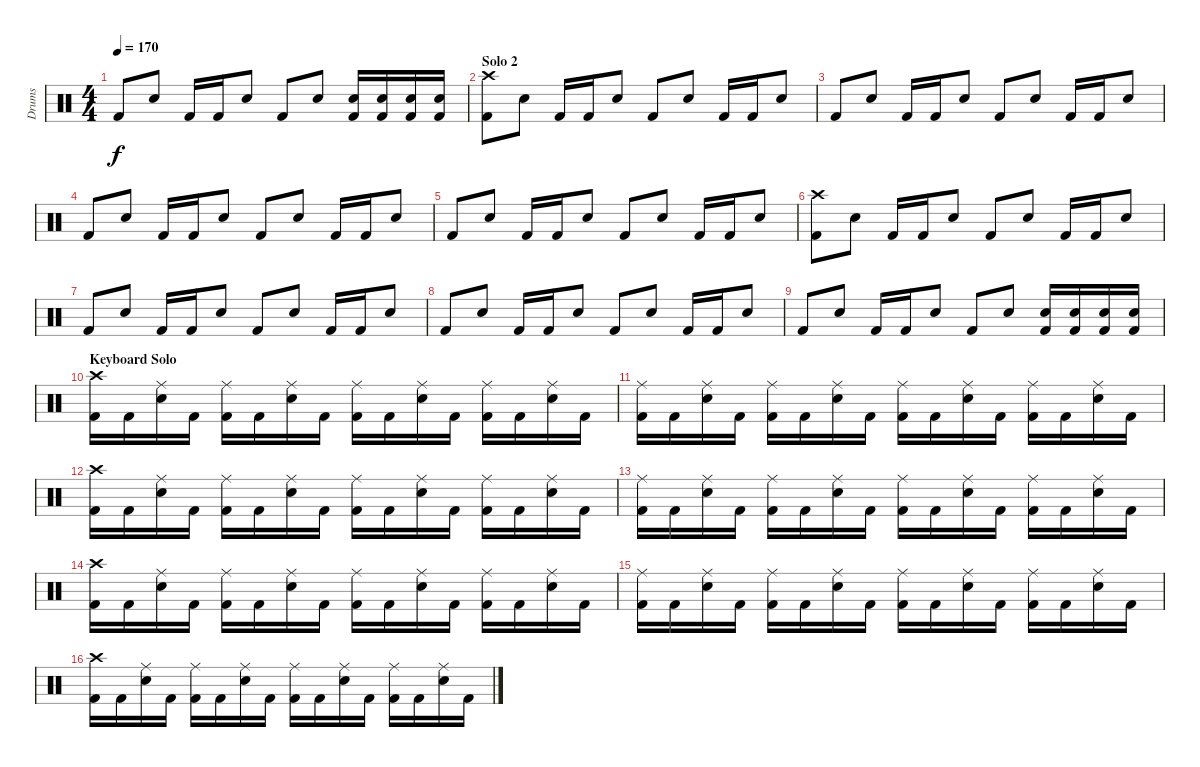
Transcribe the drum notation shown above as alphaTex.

\track ("Drums" "Drums") {instrument percussion}
\staff {score}
\articulation defaults
\ts (4 4)
\tempo 170
\clef neutral
\ks c "Kick (hit) 2".8{dy f} "Snare (hit) 2".8 "Kick (hit) 2".16 "Kick (hit) 2".16 "Snare (hit) 2".8 "Kick (hit) 2".8 "Snare (hit) 2".8
("Snare (hit) 2" "Kick (hit) 2").16 ("Snare (hit) 2" "Kick (hit) 2").16 ("Snare (hit) 2" "Kick (hit) 2").16 ("Snare (hit) 2" "Kick (hit) 2").16 |
\section ("" "Solo 2")
("Crash high (hit)" "Kick (hit) 2").8 "Snare (hit) 2".8 "Kick (hit) 2".16 "Kick (hit) 2".16 "Snare (hit) 2".8 "Kick (hit) 2".8 "Snare (hit) 2".8 "Kick (hit) 2".16 "Kick (hit) 2".16 "Snare (hit) 2".8 |
"Kick (hit) 2".8 "Snare (hit) 2".8 "Kick (hit) 2".16 "Kick (hit) 2".16 "Snare (hit) 2".8 "Kick (hit) 2".8 "Snare (hit) 2".8 "Kick (hit) 2".16 "Kick (hit) 2".16 "Snare (hit) 2".8 |
"Kick (hit) 2".8 "Snare (hit) 2".8 "Kick (hit) 2".16 "Kick (hit) 2".16 "Snare (hit) 2".8 "Kick (hit) 2".8 "Snare (hit) 2".8 "Kick (hit) 2".16 "Kick (hit) 2".16 "Snare (hit) 2".8 |
"Kick (hit) 2".8 "Snare (hit) 2".8 "Kick (hit) 2".16 "Kick (hit) 2".16 "Snare (hit) 2".8 "Kick (hit) 2".8 "Snare (hit) 2".8 "Kick (hit) 2".16 "Kick (hit) 2".16 "Snare (hit) 2".8 |
("Crash high (hit)" "Kick (hit) 2").8 "Snare (hit) 2".8 "Kick (hit) 2".16 "Kick (hit) 2".16 "Snare (hit) 2".8 "Kick (hit) 2".8 "Snare (hit) 2".8 "Kick (hit) 2".16 "Kick (hit) 2".16 "Snare (hit) 2".8 |
"Kick (hit) 2".8 "Snare (hit) 2".8 "Kick (hit) 2".16 "Kick (hit) 2".16 "Snare (hit) 2".8 "Kick (hit) 2".8 "Snare (hit) 2".8 "Kick (hit) 2".16 "Kick (hit) 2".16 "Snare (hit) 2".8 |
"Kick (hit) 2".8 "Snare (hit) 2".8 "Kick (hit) 2".16 "Kick (hit) 2".16 "Snare (hit) 2".8 "Kick (hit) 2".8 "Snare (hit) 2".8 "Kick (hit) 2".16 "Kick (hit) 2".16 "Snare (hit) 2".8 |
"Kick (hit) 2".8 "Snare (hit) 2".8 "Kick (hit) 2".16 "Kick (hit) 2".16 "Snare (hit) 2".8 "Kick (hit) 2".8 "Snare (hit) 2".8 ("Snare (hit) 2" "Kick (hit) 2").16 ("Snare (hit) 2" "Kick (hit) 2").16 ("Snare (hit) 2" "Kick (hit) 2").16 ("Snare (hit) 2" "Kick (hit) 2").16 |
\section ("" "Keyboard Solo")
("Crash high (hit)" "Kick (hit) 2").16 "Kick (hit) 2".16 ("Ride (middle)" "Electric Snare (hit)").16 "Kick (hit) 2".16 ("Ride (middle)" "Kick (hit) 2").16 "Kick (hit) 2".16 ("Ride (middle)" "Electric Snare (hit)").16 "Kick (hit) 2".16 ("Ride (middle)" "Kick (hit) 2").16 "Kick (hit) 2".16 ("Ride (middle)" "Electric Snare (hit)").16 "Kick (hit) 2".16 ("Ride (middle)" "Kick (hit) 2").16 "Kick (hit) 2".16 ("Ride (middle)" "Electric Snare (hit)").16 "Kick (hit) 2".16 |
("Ride (middle)" "Kick (hit) 2").16 "Kick (hit) 2".16 ("Ride (middle)" "Electric Snare (hit)").16 "Kick (hit) 2".16 ("Ride (middle)" "Kick (hit) 2").16 "Kick (hit) 2".16 ("Ride (middle)" "Electric Snare (hit)").16 "Kick (hit) 2".16 ("Ride (middle)" "Kick (hit) 2").16 "Kick (hit) 2".16 ("Ride (middle)" "Electric Snare (hit)").16 "Kick (hit) 2".16 ("Ride (middle)" "Kick (hit) 2").16 "Kick (hit) 2".16 ("Ride (middle)" "Electric Snare (hit)").16 "Kick (hit) 2".16 |
("Crash high (hit)" "Kick (hit) 2").16 "Kick (hit) 2".16 ("Ride (middle)" "Electric Snare (hit)").16 "Kick (hit) 2".16 ("Ride (middle)" "Kick (hit) 2").16 "Kick (hit) 2".16 ("Ride (middle)" "Electric Snare (hit)").16 "Kick (hit) 2".16 ("Ride (middle)" "Kick (hit) 2").16 "Kick (hit) 2".16 ("Ride (middle)" "Electric Snare (hit)").16 "Kick (hit) 2".16 ("Ride (middle)" "Kick (hit) 2").16 "Kick (hit) 2".16 ("Ride (middle)" "Electric Snare (hit)").16 "Kick (hit) 2".16 |
("Ride (middle)" "Kick (hit) 2").16 "Kick (hit) 2".16 ("Ride (middle)" "Electric Snare (hit)").16 "Kick (hit) 2".16 ("Ride (middle)" "Kick (hit) 2").16 "Kick (hit) 2".16 ("Ride (middle)" "Electric Snare (hit)").16 "Kick (hit) 2".16 ("Ride (middle)" "Kick (hit) 2").16 "Kick (hit) 2".16 ("Ride (middle)" "Electric Snare (hit)").16 "Kick (hit) 2".16 ("Ride (middle)" "Kick (hit) 2").16 "Kick (hit) 2".16 ("Ride (middle)" "Electric Snare (hit)").16 "Kick (hit) 2".16 |
("Crash high (hit)" "Kick (hit) 2").16 "Kick (hit) 2".16 ("Ride (middle)" "Electric Snare (hit)").16 "Kick (hit) 2".16 ("Ride (middle)" "Kick (hit) 2").16 "Kick (hit) 2".16 ("Ride (middle)" "Electric Snare (hit)").16 "Kick (hit) 2".16 ("Ride (middle)" "Kick (hit) 2").16 "Kick (hit) 2".16 ("Ride (middle)" "Electric Snare (hit)").16 "Kick (hit) 2".16 ("Ride (middle)" "Kick (hit) 2").16 "Kick (hit) 2".16 ("Ride (middle)" "Electric Snare (hit)").16 "Kick (hit) 2".16 |
("Ride (middle)" "Kick (hit) 2").16 "Kick (hit) 2".16 ("Ride (middle)" "Electric Snare (hit)").16 "Kick (hit) 2".16 ("Ride (middle)" "Kick (hit) 2").16 "Kick (hit) 2".16 ("Ride (middle)" "Electric Snare (hit)").16 "Kick (hit) 2".16 ("Ride (middle)" "Kick (hit) 2").16 "Kick (hit) 2".16 ("Ride (middle)" "Electric Snare (hit)").16 "Kick (hit) 2".16 ("Ride (middle)" "Kick (hit) 2").16 "Kick (hit) 2".16 ("Ride (middle)" "Electric Snare (hit)").16 "Kick (hit) 2".16 |
("Crash high (hit)" "Kick (hit) 2").16 "Kick (hit) 2".16 ("Ride (middle)" "Electric Snare (hit)").16 "Kick (hit) 2".16 ("Ride (middle)" "Kick (hit) 2").16 "Kick (hit) 2".16 ("Ride (middle)" "Electric Snare (hit)").16 "Kick (hit) 2".16 ("Ride (middle)" "Kick (hit) 2").16 "Kick (hit) 2".16 ("Ride (middle)" "Electric Snare (hit)").16 "Kick (hit) 2".16 ("Ride (middle)" "Kick (hit) 2").16 "Kick (hit) 2".16 ("Ride (middle)" "Electric Snare (hit)").16 "Kick (hit) 2".16
